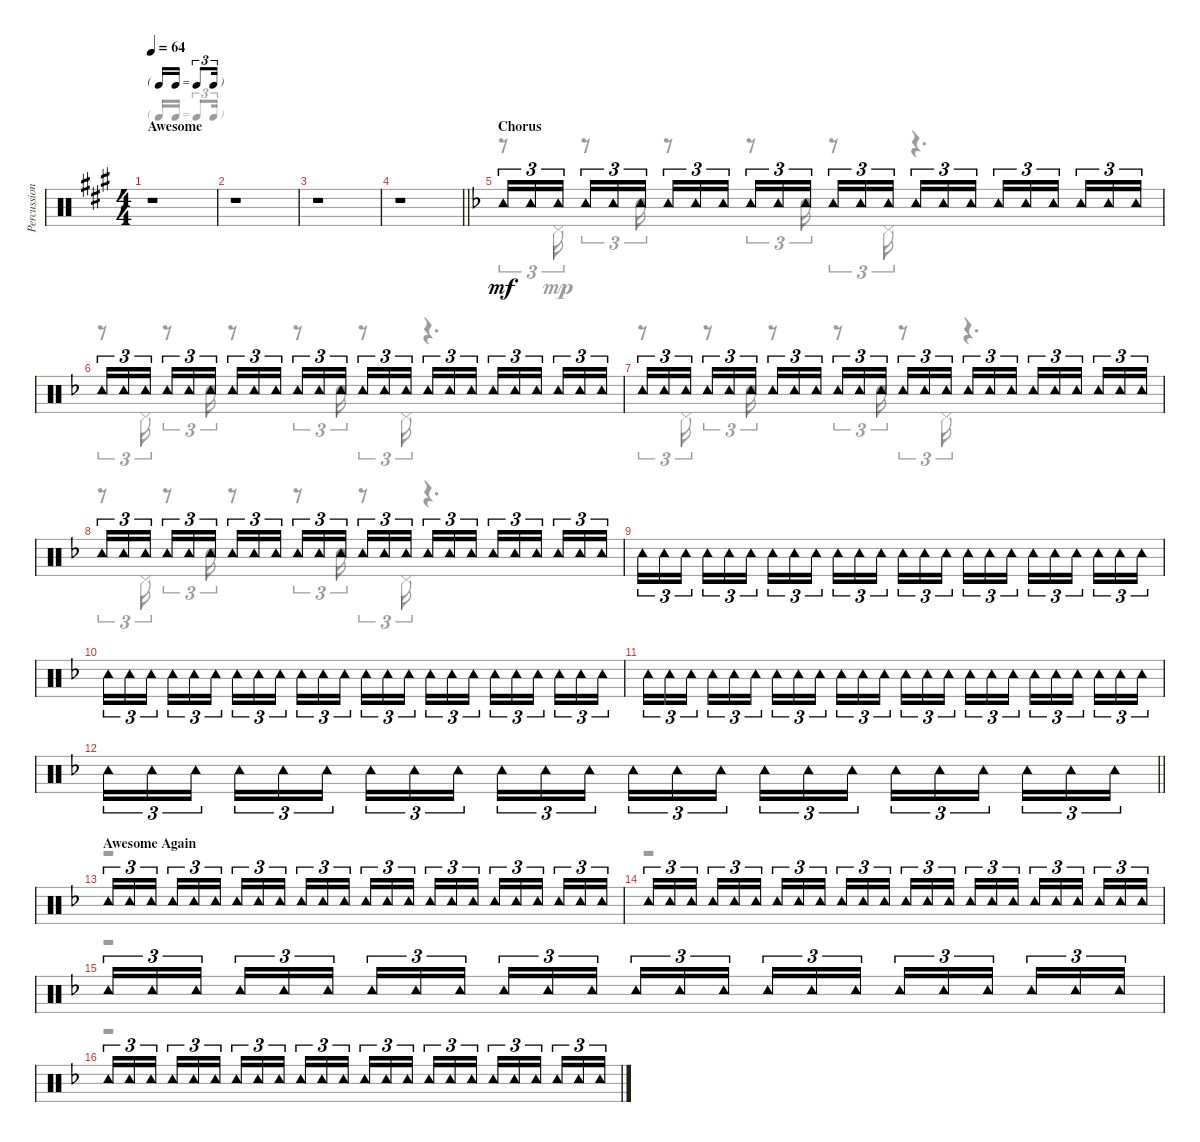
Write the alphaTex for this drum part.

\track ("Percussion" "Percussion") {instrument percussion}
\staff {score}
\articulation defaults
\voice
\ts (4 4)
\tf triplet16th
\section ("" "Awesome")
\tempo 64
\clef neutral
\ks a
r.1{dy mp} |
r.1 |
r.1 |
\barLineRight lightlight
r.1 |
\section ("" "Chorus")
\ks f "Tambourine (hit)".16{tu (3 2) dy mf} "Tambourine (hit)".16{tu (3 2)} "Tambourine (hit)".16{tu (3 2) beam splitsecondary} "Tambourine (hit)".16{tu (3 2)} "Tambourine (hit)".16{tu (3 2)} "Tambourine (hit)".16{tu (3 2)} "Tambourine (hit)".16{tu (3 2)} "Tambourine (hit)".16{tu (3 2)} "Tambourine (hit)".16{tu (3 2) beam splitsecondary} "Tambourine (hit)".16{tu (3 2)} "Tambourine (hit)".16{tu (3 2)} "Tambourine (hit)".16{tu (3 2)} "Tambourine (hit)".16{tu (3 2)} "Tambourine (hit)".16{tu (3 2)} "Tambourine (hit)".16{tu (3 2) beam splitsecondary} "Tambourine (hit)".16{tu (3 2)} "Tambourine (hit)".16{tu (3 2)} "Tambourine (hit)".16{tu (3 2)} "Tambourine (hit)".16{tu (3 2)} "Tambourine (hit)".16{tu (3 2)} "Tambourine (hit)".16{tu (3 2) beam splitsecondary} "Tambourine (hit)".16{tu (3 2)} "Tambourine (hit)".16{tu (3 2)} "Tambourine (hit)".16{tu (3 2)}
|
"Tambourine (hit)".16{tu (3 2)} "Tambourine (hit)".16{tu (3 2)} "Tambourine (hit)".16{tu (3 2) beam splitsecondary} "Tambourine (hit)".16{tu (3 2)} "Tambourine (hit)".16{tu (3 2)} "Tambourine (hit)".16{tu (3 2)} "Tambourine (hit)".16{tu (3 2)} "Tambourine (hit)".16{tu (3 2)} "Tambourine (hit)".16{tu (3 2) beam splitsecondary} "Tambourine (hit)".16{tu (3 2)} "Tambourine (hit)".16{tu (3 2)} "Tambourine (hit)".16{tu (3 2)} "Tambourine (hit)".16{tu (3 2)} "Tambourine (hit)".16{tu (3 2)} "Tambourine (hit)".16{tu (3 2) beam splitsecondary} "Tambourine (hit)".16{tu (3 2)} "Tambourine (hit)".16{tu (3 2)} "Tambourine (hit)".16{tu (3 2)} "Tambourine (hit)".16{tu (3 2)} "Tambourine (hit)".16{tu (3 2)} "Tambourine (hit)".16{tu (3 2) beam splitsecondary} "Tambourine (hit)".16{tu (3 2)} "Tambourine (hit)".16{tu (3 2)} "Tambourine (hit)".16{tu (3 2)} |
"Tambourine (hit)".16{tu (3 2)} "Tambourine (hit)".16{tu (3 2)} "Tambourine (hit)".16{tu (3 2) beam splitsecondary} "Tambourine (hit)".16{tu (3 2)} "Tambourine (hit)".16{tu (3 2)} "Tambourine (hit)".16{tu (3 2)} "Tambourine (hit)".16{tu (3 2)} "Tambourine (hit)".16{tu (3 2)} "Tambourine (hit)".16{tu (3 2) beam splitsecondary} "Tambourine (hit)".16{tu (3 2)} "Tambourine (hit)".16{tu (3 2)} "Tambourine (hit)".16{tu (3 2)} "Tambourine (hit)".16{tu (3 2)} "Tambourine (hit)".16{tu (3 2)} "Tambourine (hit)".16{tu (3 2) beam splitsecondary} "Tambourine (hit)".16{tu (3 2)} "Tambourine (hit)".16{tu (3 2)} "Tambourine (hit)".16{tu (3 2)} "Tambourine (hit)".16{tu (3 2)} "Tambourine (hit)".16{tu (3 2)} "Tambourine (hit)".16{tu (3 2) beam splitsecondary} "Tambourine (hit)".16{tu (3 2)} "Tambourine (hit)".16{tu (3 2)} "Tambourine (hit)".16{tu (3 2)} |
"Tambourine (hit)".16{tu (3 2)} "Tambourine (hit)".16{tu (3 2)} "Tambourine (hit)".16{tu (3 2) beam splitsecondary} "Tambourine (hit)".16{tu (3 2)} "Tambourine (hit)".16{tu (3 2)} "Tambourine (hit)".16{tu (3 2)} "Tambourine (hit)".16{tu (3 2)} "Tambourine (hit)".16{tu (3 2)} "Tambourine (hit)".16{tu (3 2) beam splitsecondary} "Tambourine (hit)".16{tu (3 2)} "Tambourine (hit)".16{tu (3 2)} "Tambourine (hit)".16{tu (3 2)} "Tambourine (hit)".16{tu (3 2)} "Tambourine (hit)".16{tu (3 2)} "Tambourine (hit)".16{tu (3 2) beam splitsecondary} "Tambourine (hit)".16{tu (3 2)} "Tambourine (hit)".16{tu (3 2)} "Tambourine (hit)".16{tu (3 2)} "Tambourine (hit)".16{tu (3 2)} "Tambourine (hit)".16{tu (3 2)} "Tambourine (hit)".16{tu (3 2) beam splitsecondary} "Tambourine (hit)".16{tu (3 2)} "Tambourine (hit)".16{tu (3 2)} "Tambourine (hit)".16{tu (3 2)} |
"Tambourine (hit)".16{tu (3 2)} "Tambourine (hit)".16{tu (3 2)} "Tambourine (hit)".16{tu (3 2) beam splitsecondary} "Tambourine (hit)".16{tu (3 2)} "Tambourine (hit)".16{tu (3 2)} "Tambourine (hit)".16{tu (3 2)} "Tambourine (hit)".16{tu (3 2)} "Tambourine (hit)".16{tu (3 2)} "Tambourine (hit)".16{tu (3 2) beam splitsecondary} "Tambourine (hit)".16{tu (3 2)} "Tambourine (hit)".16{tu (3 2)} "Tambourine (hit)".16{tu (3 2)} "Tambourine (hit)".16{tu (3 2)} "Tambourine (hit)".16{tu (3 2)} "Tambourine (hit)".16{tu (3 2) beam splitsecondary} "Tambourine (hit)".16{tu (3 2)} "Tambourine (hit)".16{tu (3 2)} "Tambourine (hit)".16{tu (3 2)} "Tambourine (hit)".16{tu (3 2)} "Tambourine (hit)".16{tu (3 2)} "Tambourine (hit)".16{tu (3 2) beam splitsecondary} "Tambourine (hit)".16{tu (3 2)} "Tambourine (hit)".16{tu (3 2)} "Tambourine (hit)".16{tu (3 2)} |
"Tambourine (hit)".16{tu (3 2)} "Tambourine (hit)".16{tu (3 2)} "Tambourine (hit)".16{tu (3 2) beam splitsecondary} "Tambourine (hit)".16{tu (3 2)} "Tambourine (hit)".16{tu (3 2)} "Tambourine (hit)".16{tu (3 2)} "Tambourine (hit)".16{tu (3 2)} "Tambourine (hit)".16{tu (3 2)} "Tambourine (hit)".16{tu (3 2) beam splitsecondary} "Tambourine (hit)".16{tu (3 2)} "Tambourine (hit)".16{tu (3 2)} "Tambourine (hit)".16{tu (3 2)} "Tambourine (hit)".16{tu (3 2)} "Tambourine (hit)".16{tu (3 2)} "Tambourine (hit)".16{tu (3 2) beam splitsecondary} "Tambourine (hit)".16{tu (3 2)} "Tambourine (hit)".16{tu (3 2)} "Tambourine (hit)".16{tu (3 2)} "Tambourine (hit)".16{tu (3 2)} "Tambourine (hit)".16{tu (3 2)} "Tambourine (hit)".16{tu (3 2) beam splitsecondary} "Tambourine (hit)".16{tu (3 2)} "Tambourine (hit)".16{tu (3 2)} "Tambourine (hit)".16{tu (3 2)} |
"Tambourine (hit)".16{tu (3 2)} "Tambourine (hit)".16{tu (3 2)} "Tambourine (hit)".16{tu (3 2) beam splitsecondary} "Tambourine (hit)".16{tu (3 2)} "Tambourine (hit)".16{tu (3 2)} "Tambourine (hit)".16{tu (3 2)} "Tambourine (hit)".16{tu (3 2)} "Tambourine (hit)".16{tu (3 2)} "Tambourine (hit)".16{tu (3 2) beam splitsecondary} "Tambourine (hit)".16{tu (3 2)} "Tambourine (hit)".16{tu (3 2)} "Tambourine (hit)".16{tu (3 2)} "Tambourine (hit)".16{tu (3 2)} "Tambourine (hit)".16{tu (3 2)} "Tambourine (hit)".16{tu (3 2) beam splitsecondary} "Tambourine (hit)".16{tu (3 2)} "Tambourine (hit)".16{tu (3 2)} "Tambourine (hit)".16{tu (3 2)} "Tambourine (hit)".16{tu (3 2)} "Tambourine (hit)".16{tu (3 2)} "Tambourine (hit)".16{tu (3 2) beam splitsecondary} "Tambourine (hit)".16{tu (3 2)} "Tambourine (hit)".16{tu (3 2)} "Tambourine (hit)".16{tu (3 2)} |
\barLineRight lightlight "Tambourine (hit)".16{tu (3 2)} "Tambourine (hit)".16{tu (3 2)} "Tambourine (hit)".16{tu (3 2) beam splitsecondary} "Tambourine (hit)".16{tu (3 2)} "Tambourine (hit)".16{tu (3 2)} "Tambourine (hit)".16{tu (3 2)} "Tambourine (hit)".16{tu (3 2)} "Tambourine (hit)".16{tu (3 2)} "Tambourine (hit)".16{tu (3 2) beam splitsecondary} "Tambourine (hit)".16{tu (3 2)} "Tambourine (hit)".16{tu (3 2)} "Tambourine (hit)".16{tu (3 2)} "Tambourine (hit)".16{tu (3 2)} "Tambourine (hit)".16{tu (3 2)} "Tambourine (hit)".16{tu (3 2) beam splitsecondary} "Tambourine (hit)".16{tu (3 2)} "Tambourine (hit)".16{tu (3 2)} "Tambourine (hit)".16{tu (3 2)} "Tambourine (hit)".16{tu (3 2)} "Tambourine (hit)".16{tu (3 2)} "Tambourine (hit)".16{tu (3 2) beam splitsecondary} "Tambourine (hit)".16{tu (3 2)} "Tambourine (hit)".16{tu (3 2)} "Tambourine (hit)".16{tu (3 2)}
|
\section ("" "Awesome Again")
"Tambourine (hit)".16{tu (3 2)} "Tambourine (hit)".16{tu (3 2)} "Tambourine (hit)".16{tu (3 2) beam splitsecondary} "Tambourine (hit)".16{tu (3 2)} "Tambourine (hit)".16{tu (3 2)} "Tambourine (hit)".16{tu (3 2)} "Tambourine (hit)".16{tu (3 2)} "Tambourine (hit)".16{tu (3 2)} "Tambourine (hit)".16{tu (3 2) beam splitsecondary} "Tambourine (hit)".16{tu (3 2)} "Tambourine (hit)".16{tu (3 2)} "Tambourine (hit)".16{tu (3 2)} "Tambourine (hit)".16{tu (3 2)} "Tambourine (hit)".16{tu (3 2)} "Tambourine (hit)".16{tu (3 2) beam splitsecondary} "Tambourine (hit)".16{tu (3 2)} "Tambourine (hit)".16{tu (3 2)} "Tambourine (hit)".16{tu (3 2)} "Tambourine (hit)".16{tu (3 2)} "Tambourine (hit)".16{tu (3 2)} "Tambourine (hit)".16{tu (3 2) beam splitsecondary} "Tambourine (hit)".16{tu (3 2)} "Tambourine (hit)".16{tu (3 2)} "Tambourine (hit)".16{tu (3 2)} |
"Tambourine (hit)".16{tu (3 2)} "Tambourine (hit)".16{tu (3 2)} "Tambourine (hit)".16{tu (3 2) beam splitsecondary} "Tambourine (hit)".16{tu (3 2)} "Tambourine (hit)".16{tu (3 2)} "Tambourine (hit)".16{tu (3 2)} "Tambourine (hit)".16{tu (3 2)} "Tambourine (hit)".16{tu (3 2)} "Tambourine (hit)".16{tu (3 2) beam splitsecondary} "Tambourine (hit)".16{tu (3 2)} "Tambourine (hit)".16{tu (3 2)} "Tambourine (hit)".16{tu (3 2)} "Tambourine (hit)".16{tu (3 2)} "Tambourine (hit)".16{tu (3 2)} "Tambourine (hit)".16{tu (3 2) beam splitsecondary} "Tambourine (hit)".16{tu (3 2)} "Tambourine (hit)".16{tu (3 2)} "Tambourine (hit)".16{tu (3 2)} "Tambourine (hit)".16{tu (3 2)} "Tambourine (hit)".16{tu (3 2)} "Tambourine (hit)".16{tu (3 2) beam splitsecondary} "Tambourine (hit)".16{tu (3 2)} "Tambourine (hit)".16{tu (3 2)} "Tambourine (hit)".16{tu (3 2)} |
"Tambourine (hit)".16{tu (3 2)} "Tambourine (hit)".16{tu (3 2)} "Tambourine (hit)".16{tu (3 2) beam splitsecondary} "Tambourine (hit)".16{tu (3 2)} "Tambourine (hit)".16{tu (3 2)} "Tambourine (hit)".16{tu (3 2)} "Tambourine (hit)".16{tu (3 2)} "Tambourine (hit)".16{tu (3 2)} "Tambourine (hit)".16{tu (3 2) beam splitsecondary} "Tambourine (hit)".16{tu (3 2)} "Tambourine (hit)".16{tu (3 2)} "Tambourine (hit)".16{tu (3 2)} "Tambourine (hit)".16{tu (3 2)} "Tambourine (hit)".16{tu (3 2)} "Tambourine (hit)".16{tu (3 2) beam splitsecondary} "Tambourine (hit)".16{tu (3 2)} "Tambourine (hit)".16{tu (3 2)} "Tambourine (hit)".16{tu (3 2)} "Tambourine (hit)".16{tu (3 2)} "Tambourine (hit)".16{tu (3 2)} "Tambourine (hit)".16{tu (3 2) beam splitsecondary} "Tambourine (hit)".16{tu (3 2)} "Tambourine (hit)".16{tu (3 2)} "Tambourine (hit)".16{tu (3 2)} |
"Tambourine (hit)".16{tu (3 2)} "Tambourine (hit)".16{tu (3 2)} "Tambourine (hit)".16{tu (3 2) beam splitsecondary} "Tambourine (hit)".16{tu (3 2)} "Tambourine (hit)".16{tu (3 2)} "Tambourine (hit)".16{tu (3 2)} "Tambourine (hit)".16{tu (3 2)} "Tambourine (hit)".16{tu (3 2)} "Tambourine (hit)".16{tu (3 2) beam splitsecondary} "Tambourine (hit)".16{tu (3 2)} "Tambourine (hit)".16{tu (3 2)} "Tambourine (hit)".16{tu (3 2)} "Tambourine (hit)".16{tu (3 2)} "Tambourine (hit)".16{tu (3 2)} "Tambourine (hit)".16{tu (3 2) beam splitsecondary} "Tambourine (hit)".16{tu (3 2)} "Tambourine (hit)".16{tu (3 2)} "Tambourine (hit)".16{tu (3 2)} "Tambourine (hit)".16{tu (3 2)} "Tambourine (hit)".16{tu (3 2)} "Tambourine (hit)".16{tu (3 2) beam splitsecondary} "Tambourine (hit)".16{tu (3 2)} "Tambourine (hit)".16{tu (3 2)} "Tambourine (hit)".16{tu (3 2)}
\voice
\clef neutral
\ottava regular
\simile none
\ks a
r.1{dy mp} |
r.1 |
r.1 |
\barLineRight lightlight
r.1 |
\ks f
r.8{tu (3 2)} "Pedal Hi-Hat (hit)".16{tu (3 2)} r.8{tu (3 2)} "Electric Snare (hit)".16{tu (3 2)} r.8 r.8{tu (3 2)} "Electric Snare (hit)".16{tu (3 2)} r.8{tu (3 2)} "Pedal Hi-Hat (hit)".16{tu (3 2)} r.4{d} |
r.8{tu (3 2)} "Pedal Hi-Hat (hit)".16{tu (3 2)} r.8{tu (3 2)} "Electric Snare (hit)".16{tu (3 2)} r.8 r.8{tu (3 2)} "Electric Snare (hit)".16{tu (3 2)} r.8{tu (3 2)} "Pedal Hi-Hat (hit)".16{tu (3 2)} r.4{d} |
r.8{tu (3 2)} "Pedal Hi-Hat (hit)".16{tu (3 2)} r.8{tu (3 2)} "Electric Snare (hit)".16{tu (3 2)} r.8 r.8{tu (3 2)} "Electric Snare (hit)".16{tu (3 2)} r.8{tu (3 2)} "Pedal Hi-Hat (hit)".16{tu (3 2)} r.4{d} |
r.8{tu (3 2)} "Pedal Hi-Hat (hit)".16{tu (3 2)} r.8{tu (3 2)} "Electric Snare (hit)".16{tu (3 2)} r.8 r.8{tu (3 2)} "Electric Snare (hit)".16{tu (3 2)} r.8{tu (3 2)} "Pedal Hi-Hat (hit)".16{tu (3 2)} r.4{d} |
|
|
|
\barLineRight lightlight
|
r.1 |
r.1 |
r.1 |
r.1
